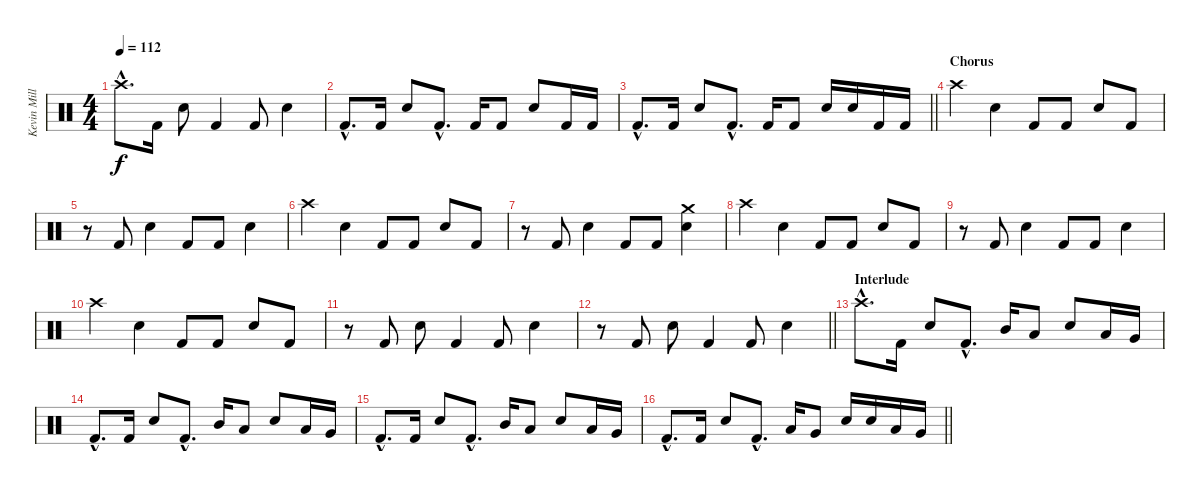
\track ("Kevin Miller (Drums)" "Kevin Mill") {instrument percussion}
\staff {score}
\articulation defaults
\ts (4 4)
\tempo 112
\clef neutral
\ks c "Crash high (hit)"{hac}.8{d dy f} "Kick (hit) 2".16 "Electric Snare (hit)".8 "Kick (hit) 2".4 "Kick (hit) 2".8 "Electric Snare (hit)".4
|
"Kick (hit) 2"{hac}.8{d} "Kick (hit) 2".16 "Electric Snare (hit)".8 "Kick (hit) 2"{hac}.8{d} "Kick (hit) 2".16 "Kick (hit) 2".8 "Electric Snare (hit)".8 "Kick (hit) 2".16 "Kick (hit) 2".16 |
\barLineRight lightlight "Kick (hit) 2"{hac}.8{d} "Kick (hit) 2".16 "Electric Snare (hit)".8 "Kick (hit) 2"{hac}.8{d} "Kick (hit) 2".16 "Kick (hit) 2".8 "Electric Snare (hit)".16 "Electric Snare (hit)".16 "Kick (hit) 2".16 "Kick (hit) 2".16
|
\section ("" "Chorus")
"Crash high (hit)".4 "Electric Snare (hit)".4 "Kick (hit) 2".8 "Kick (hit) 2".8 "Electric Snare (hit)".8 "Kick (hit) 2".8 |
r.8 "Kick (hit) 2".8 "Electric Snare (hit)".4 "Kick (hit) 2".8 "Kick (hit) 2".8 "Electric Snare (hit)".4 |
"Crash high (hit)".4 "Electric Snare (hit)".4 "Kick (hit) 2".8 "Kick (hit) 2".8 "Electric Snare (hit)".8 "Kick (hit) 2".8 |
r.8 "Kick (hit) 2".8 "Electric Snare (hit)".4 "Kick (hit) 2".8 "Kick (hit) 2".8 ("Crash medium (hit)" "Electric Snare (hit)").4 |
"Crash high (hit)".4 "Electric Snare (hit)".4 "Kick (hit) 2".8 "Kick (hit) 2".8 "Electric Snare (hit)".8 "Kick (hit) 2".8 |
r.8 "Kick (hit) 2".8 "Electric Snare (hit)".4 "Kick (hit) 2".8 "Kick (hit) 2".8 "Electric Snare (hit)".4 |
"Crash high (hit)".4 "Electric Snare (hit)".4 "Kick (hit) 2".8 "Kick (hit) 2".8 "Electric Snare (hit)".8 "Kick (hit) 2".8 |
r.8 "Kick (hit) 2".8 "Electric Snare (hit)".8 "Kick (hit) 2".4 "Kick (hit) 2".8 "Electric Snare (hit)".4 |
\barLineRight lightlight
r.8 "Kick (hit) 2".8 "Electric Snare (hit)".8 "Kick (hit) 2".4 "Kick (hit) 2".8 "Electric Snare (hit)".4 |
\section ("" "Interlude")
"Crash high (hit)"{hac}.8{d} "Kick (hit) 2".16 "Electric Snare (hit)".8 "Kick (hit) 2"{hac}.8{d} "Mid Tom (hit)".16 "Low Tom (hit)".8 "Electric Snare (hit)".8 "Low Tom (hit)".16 "Very Low Tom (hit)".16 |
"Kick (hit) 2"{hac}.8{d} "Kick (hit) 2".16 "Electric Snare (hit)".8 "Kick (hit) 2"{hac}.8{d} "Mid Tom (hit)".16 "Low Tom (hit)".8 "Electric Snare (hit)".8 "Low Tom (hit)".16 "Very Low Tom (hit)".16 |
"Kick (hit) 2"{hac}.8{d} "Kick (hit) 2".16 "Electric Snare (hit)".8 "Kick (hit) 2"{hac}.8{d} "Mid Tom (hit)".16 "Low Tom (hit)".8 "Electric Snare (hit)".8 "Low Tom (hit)".16 "Very Low Tom (hit)".16 |
\barLineRight lightlight "Kick (hit) 2"{hac}.8{d} "Kick (hit) 2".16 "Electric Snare (hit)".8 "Kick (hit) 2"{hac}.8{d} "Low Tom (hit)".16 "Very Low Tom (hit)".8 "Electric Snare (hit)".16 "Electric Snare (hit)".16 "Low Tom (hit)".16 "Very Low Tom (hit)".16
